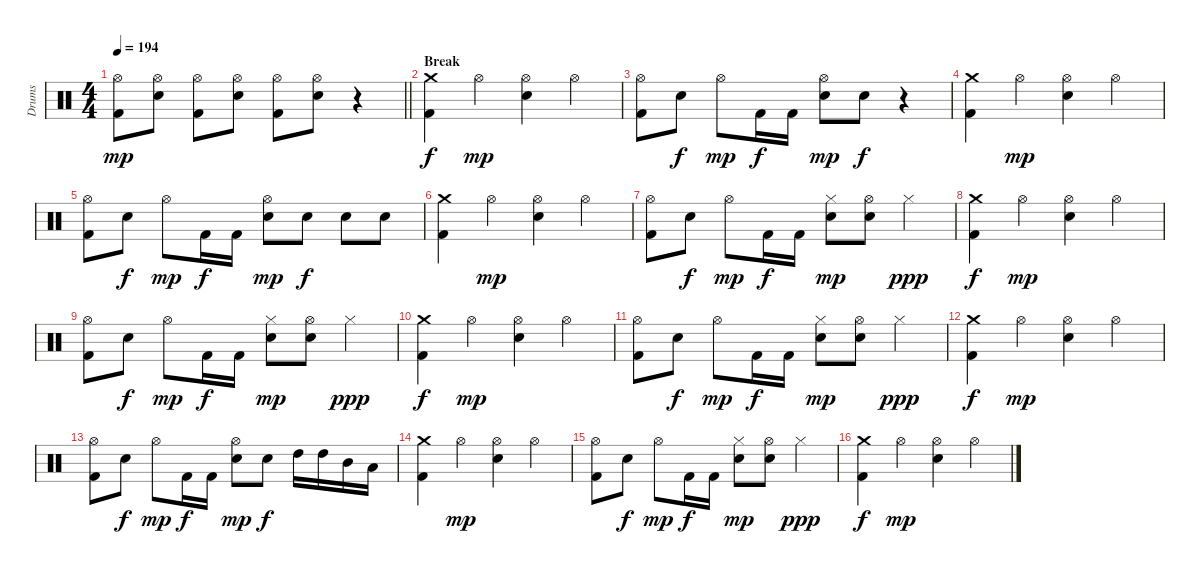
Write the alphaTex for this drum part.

\track ("Drums" "Drums") {instrument percussion}
\staff {score}
\articulation defaults
\ts (4 4)
\tempo 194
\clef neutral
\barLineRight lightlight
\ks c
("Hi-Hat (open)" "Kick (hit) 2").8{dy mp} ("Hi-Hat (open)" "Snare (hit) 2").8 ("Hi-Hat (open)" "Kick (hit) 2").8 ("Hi-Hat (open)" "Snare (hit) 2").8 ("Hi-Hat (open)" "Kick (hit) 2").8 ("Hi-Hat (open)" "Snare (hit) 2").8 r.4 |
\section ("" "Break")
("Crash medium (hit)" "Kick (hit) 2").4{dy f} "Hi-Hat (open)".4{dy mp} ("Hi-Hat (open)" "Snare (hit) 2").4 "Hi-Hat (open)".4 |
("Hi-Hat (open)" "Kick (hit) 2").8 "Snare (hit) 2".8{dy f} "Hi-Hat (open)".8{dy mp} "Kick (hit) 2".16{dy f} "Kick (hit) 2".16 ("Hi-Hat (open)" "Snare (hit) 2").8{dy mp} "Snare (hit) 2".8{dy f} r.4 |
("Crash medium (hit)" "Kick (hit) 2").4 "Hi-Hat (open)".4{dy mp} ("Hi-Hat (open)" "Snare (hit) 2").4 "Hi-Hat (open)".4 |
("Hi-Hat (open)" "Kick (hit) 2").8 "Snare (hit) 2".8{dy f} "Hi-Hat (open)".8{dy mp} "Kick (hit) 2".16{dy f} "Kick (hit) 2".16 ("Hi-Hat (open)" "Snare (hit) 2").8{dy mp} "Snare (hit) 2".8{dy f} "Snare (hit) 2".8 "Snare (hit) 2".8 |
("Crash medium (hit)" "Kick (hit) 2").4 "Hi-Hat (open)".4{dy mp} ("Hi-Hat (open)" "Snare (hit) 2").4 "Hi-Hat (open)".4 |
("Hi-Hat (open)" "Kick (hit) 2").8 "Snare (hit) 2".8{dy f} "Hi-Hat (open)".8{dy mp} "Kick (hit) 2".16{dy f} "Kick (hit) 2".16 ("Hi-Hat (closed)" "Snare (hit) 2").8{dy mp} ("Hi-Hat (open)" "Snare (hit) 2").8 "Hi-Hat (closed)".4{dy ppp} |
("Crash medium (hit)" "Kick (hit) 2").4{dy f} "Hi-Hat (open)".4{dy mp} ("Hi-Hat (open)" "Snare (hit) 2").4 "Hi-Hat (open)".4 |
("Hi-Hat (open)" "Kick (hit) 2").8 "Snare (hit) 2".8{dy f} "Hi-Hat (open)".8{dy mp} "Kick (hit) 2".16{dy f} "Kick (hit) 2".16 ("Hi-Hat (closed)" "Snare (hit) 2").8{dy mp} ("Hi-Hat (open)" "Snare (hit) 2").8 "Hi-Hat (closed)".4{dy ppp} |
("Crash medium (hit)" "Kick (hit) 2").4{dy f} "Hi-Hat (open)".4{dy mp} ("Hi-Hat (open)" "Snare (hit) 2").4 "Hi-Hat (open)".4 |
("Hi-Hat (open)" "Kick (hit) 2").8 "Snare (hit) 2".8{dy f} "Hi-Hat (open)".8{dy mp} "Kick (hit) 2".16{dy f} "Kick (hit) 2".16 ("Hi-Hat (closed)" "Snare (hit) 2").8{dy mp} ("Hi-Hat (open)" "Snare (hit) 2").8 "Hi-Hat (closed)".4{dy ppp} |
("Crash medium (hit)" "Kick (hit) 2").4{dy f} "Hi-Hat (open)".4{dy mp} ("Hi-Hat (open)" "Snare (hit) 2").4 "Hi-Hat (open)".4 |
("Hi-Hat (open)" "Kick (hit) 2").8 "Snare (hit) 2".8{dy f} "Hi-Hat (open)".8{dy mp} "Kick (hit) 2".16{dy f} "Kick (hit) 2".16 ("Hi-Hat (open)" "Snare (hit) 2").8{dy mp} "Snare (hit) 2".8{dy f} "High Tom (hit)".16 "High Tom (hit)".16 "Mid Tom (hit)".16 "Low Tom (hit)".16 |
("Crash medium (hit)" "Kick (hit) 2").4 "Hi-Hat (open)".4{dy mp} ("Hi-Hat (open)" "Snare (hit) 2").4 "Hi-Hat (open)".4 |
("Hi-Hat (open)" "Kick (hit) 2").8 "Snare (hit) 2".8{dy f} "Hi-Hat (open)".8{dy mp} "Kick (hit) 2".16{dy f} "Kick (hit) 2".16 ("Hi-Hat (closed)" "Snare (hit) 2").8{dy mp} ("Hi-Hat (open)" "Snare (hit) 2").8 "Hi-Hat (closed)".4{dy ppp} |
("Crash medium (hit)" "Kick (hit) 2").4{dy f} "Hi-Hat (open)".4{dy mp} ("Hi-Hat (open)" "Snare (hit) 2").4 "Hi-Hat (open)".4
